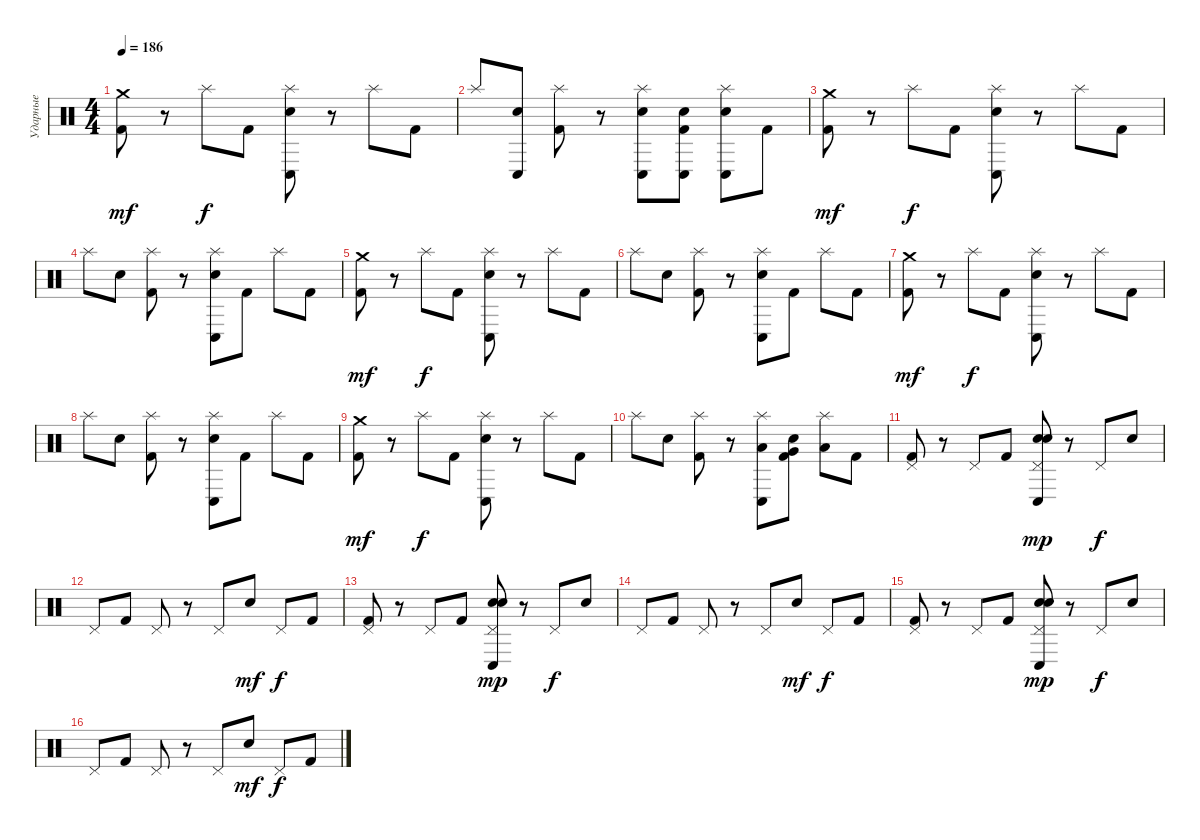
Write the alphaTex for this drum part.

\track ("Ударные" "Ударные") {instrument percussion}
\staff {score}
\articulation defaults
\ts (4 4)
\tempo 186
\clef neutral
\ks c
("Crash medium (hit)" "Kick (hit) 2").8{dy mf} r.8 "Splash (hit)".8{dy f} "Kick (hit) 2".8 ("Splash (hit)" "Conga low (hit)" "Electric Snare (hit)").8 r.8 "Splash (hit)".8 "Kick (hit) 2".8 |
"Splash (hit)".8 ("Conga low (hit)" "Electric Snare (hit)").8 ("Splash (hit)" "Kick (hit) 2").8 r.8 ("Splash (hit)" "Conga low (hit)" "Electric Snare (hit)").8 ("Conga low (hit)" "Electric Snare (hit)" "Kick (hit) 2").8 ("Splash (hit)" "Conga low (hit)" "Electric Snare (hit)").8 "Kick (hit) 2".8 |
("Crash medium (hit)" "Kick (hit) 2").8{dy mf} r.8 "Splash (hit)".8{dy f} "Kick (hit) 2".8 ("Splash (hit)" "Conga low (hit)" "Electric Snare (hit)").8 r.8 "Splash (hit)".8 "Kick (hit) 2".8 |
"Splash (hit)".8 "Electric Snare (hit)".8 ("Splash (hit)" "Kick (hit) 2").8 r.8 ("Splash (hit)" "Conga low (hit)" "Electric Snare (hit)").8 "Kick (hit) 2".8 "Splash (hit)".8 "Kick (hit) 2".8 |
("Crash medium (hit)" "Kick (hit) 2").8{dy mf} r.8 "Splash (hit)".8{dy f} "Kick (hit) 2".8 ("Splash (hit)" "Conga low (hit)" "Electric Snare (hit)").8 r.8 "Splash (hit)".8 "Kick (hit) 2".8 |
"Splash (hit)".8 "Electric Snare (hit)".8 ("Splash (hit)" "Kick (hit) 2").8 r.8 ("Splash (hit)" "Conga low (hit)" "Electric Snare (hit)").8 "Kick (hit) 2".8 "Splash (hit)".8 "Kick (hit) 2".8 |
("Crash medium (hit)" "Kick (hit) 2").8{dy mf} r.8 "Splash (hit)".8{dy f} "Kick (hit) 2".8 ("Splash (hit)" "Conga low (hit)" "Electric Snare (hit)").8 r.8 "Splash (hit)".8 "Kick (hit) 2".8 |
"Splash (hit)".8 "Electric Snare (hit)".8 ("Splash (hit)" "Kick (hit) 2").8 r.8 ("Splash (hit)" "Conga low (hit)" "Electric Snare (hit)").8 "Kick (hit) 2".8 "Splash (hit)".8 "Kick (hit) 2".8 |
("Crash medium (hit)" "Kick (hit) 2").8{dy mf} r.8 "Splash (hit)".8{dy f} "Kick (hit) 2".8 ("Splash (hit)" "Conga low (hit)" "Electric Snare (hit)").8 r.8 "Splash (hit)".8 "Kick (hit) 2".8 |
"Splash (hit)".8 "Electric Snare (hit)".8 ("Splash (hit)" "Kick (hit) 2").8 r.8 ("Splash (hit)" "Conga low (hit)" "Low Tom (hit)").8 ("Electric Snare (hit)" "Very Low Tom (hit)" "Kick (hit) 2").8 ("Splash (hit)" "Low Floor Tom (hit)").8 "Kick (hit) 2".8 |
("Pedal Hi-Hat (hit)" "Kick (hit) 2").8 r.8 "Pedal Hi-Hat (hit)".8 "Kick (hit) 2".8 ("Pedal Hi-Hat (hit)" "Conga low (hit)" "Electric Snare (hit)" "Snare (hit) 2").8{dy mp} r.8 "Pedal Hi-Hat (hit)".8{dy f} "Electric Snare (hit)".8 |
"Pedal Hi-Hat (hit)".8 "Kick (hit) 2".8 "Pedal Hi-Hat (hit)".8 r.8 "Pedal Hi-Hat (hit)".8 "Electric Snare (hit)".8{dy mf} "Pedal Hi-Hat (hit)".8{dy f} "Kick (hit) 2".8 |
("Pedal Hi-Hat (hit)" "Kick (hit) 2").8 r.8 "Pedal Hi-Hat (hit)".8 "Kick (hit) 2".8 ("Pedal Hi-Hat (hit)" "Conga low (hit)" "Electric Snare (hit)" "Snare (hit) 2").8{dy mp} r.8 "Pedal Hi-Hat (hit)".8{dy f} "Electric Snare (hit)".8 |
"Pedal Hi-Hat (hit)".8 "Kick (hit) 2".8 "Pedal Hi-Hat (hit)".8 r.8 "Pedal Hi-Hat (hit)".8 "Electric Snare (hit)".8{dy mf} "Pedal Hi-Hat (hit)".8{dy f} "Kick (hit) 2".8 |
("Pedal Hi-Hat (hit)" "Kick (hit) 2").8 r.8 "Pedal Hi-Hat (hit)".8 "Kick (hit) 2".8 ("Pedal Hi-Hat (hit)" "Conga low (hit)" "Electric Snare (hit)" "Snare (hit) 2").8{dy mp} r.8 "Pedal Hi-Hat (hit)".8{dy f} "Electric Snare (hit)".8 |
"Pedal Hi-Hat (hit)".8 "Kick (hit) 2".8 "Pedal Hi-Hat (hit)".8 r.8 "Pedal Hi-Hat (hit)".8 "Electric Snare (hit)".8{dy mf} "Pedal Hi-Hat (hit)".8{dy f} "Kick (hit) 2".8
